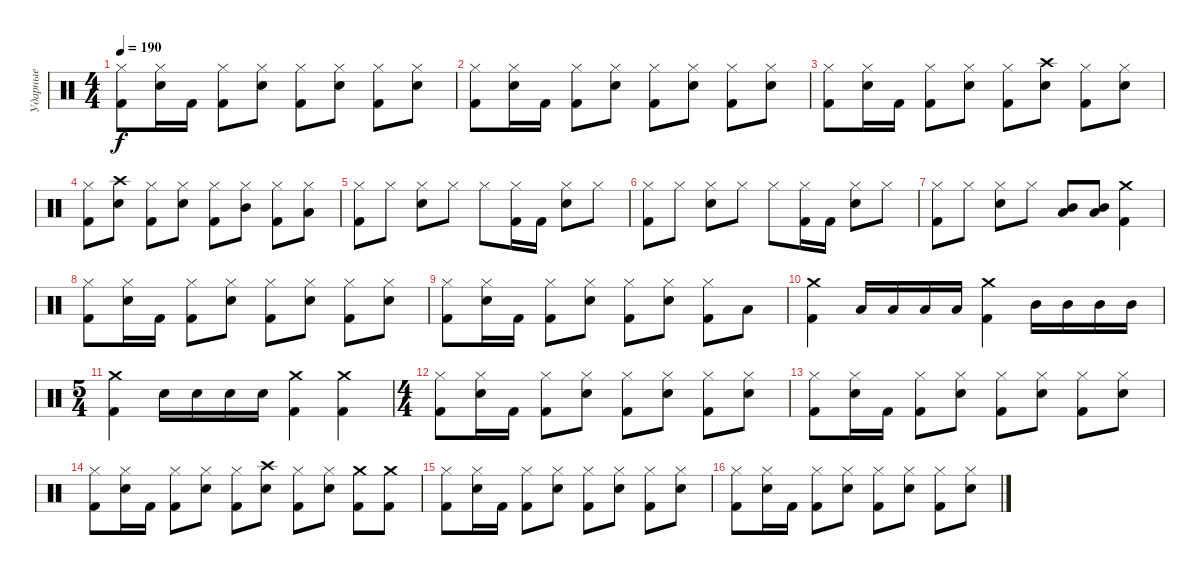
\track ("Ударные" "Ударные") {instrument percussion}
\staff {score}
\articulation defaults
\ts (4 4)
\tempo 190
\clef neutral
\ks c
("Kick (hit) 2" "Hi-Hat (closed)").8{dy f} ("Snare (hit) 2" "Hi-Hat (closed)").16 "Kick (hit) 2".16 ("Kick (hit) 2" "Hi-Hat (closed)").8 ("Snare (hit) 2" "Hi-Hat (closed)").8 ("Kick (hit) 2" "Hi-Hat (closed)").8 ("Snare (hit) 2" "Hi-Hat (closed)").8 ("Kick (hit) 2" "Hi-Hat (closed)").8 ("Snare (hit) 2" "Hi-Hat (closed)").8 |
("Kick (hit) 2" "Hi-Hat (closed)").8 ("Snare (hit) 2" "Hi-Hat (closed)").16 "Kick (hit) 2".16 ("Kick (hit) 2" "Hi-Hat (closed)").8 ("Snare (hit) 2" "Hi-Hat (closed)").8 ("Kick (hit) 2" "Hi-Hat (closed)").8 ("Snare (hit) 2" "Hi-Hat (closed)").8 ("Kick (hit) 2" "Hi-Hat (closed)").8 ("Snare (hit) 2" "Hi-Hat (closed)").8 |
("Kick (hit) 2" "Hi-Hat (closed)").8 ("Snare (hit) 2" "Hi-Hat (closed)").16 "Kick (hit) 2".16 ("Kick (hit) 2" "Hi-Hat (closed)").8 ("Snare (hit) 2" "Hi-Hat (closed)").8 ("Kick (hit) 2" "Hi-Hat (closed)").8 ("Snare (hit) 2" "Crash high (hit)").8 ("Kick (hit) 2" "Hi-Hat (closed)").8 ("Snare (hit) 2" "Hi-Hat (closed)").8 |
("Kick (hit) 2" "Hi-Hat (closed)").8 ("Snare (hit) 2" "Crash high (hit)").8 ("Kick (hit) 2" "Hi-Hat (closed)").8 ("Snare (hit) 2" "Hi-Hat (closed)").8 ("Kick (hit) 2" "Hi-Hat (closed)").8 ("Hi-Hat (closed)" "Mid Tom (hit)").8 ("Kick (hit) 2" "Hi-Hat (closed)").8 ("Hi-Hat (closed)" "Low Tom (hit)").8 |
("Kick (hit) 2" "Hi-Hat (closed)").8 "Hi-Hat (closed)".8 ("Snare (hit) 2" "Hi-Hat (closed)").8 "Hi-Hat (closed)".8 "Hi-Hat (closed)".8 ("Kick (hit) 2" "Hi-Hat (closed)").16 "Kick (hit) 2".16 ("Snare (hit) 2" "Hi-Hat (closed)").8 "Hi-Hat (closed)".8 |
("Kick (hit) 2" "Hi-Hat (closed)").8 "Hi-Hat (closed)".8 ("Snare (hit) 2" "Hi-Hat (closed)").8 "Hi-Hat (closed)".8 "Hi-Hat (closed)".8 ("Kick (hit) 2" "Hi-Hat (closed)").16 "Kick (hit) 2".16 ("Snare (hit) 2" "Hi-Hat (closed)").8 "Hi-Hat (closed)".8 |
("Kick (hit) 2" "Hi-Hat (closed)").8 "Hi-Hat (closed)".8 ("Snare (hit) 2" "Hi-Hat (closed)").8 "Hi-Hat (closed)".8 ("Mid Tom (hit)" "Low Tom (hit)").8{bd 240} ("Mid Tom (hit)" "Low Tom (hit)").8{bu 240} ("Crash medium (hit)" "Kick (hit) 2").4 |
("Kick (hit) 2" "Hi-Hat (closed)").8 ("Snare (hit) 2" "Hi-Hat (closed)").16 "Kick (hit) 2".16 ("Kick (hit) 2" "Hi-Hat (closed)").8 ("Snare (hit) 2" "Hi-Hat (closed)").8 ("Kick (hit) 2" "Hi-Hat (closed)").8 ("Snare (hit) 2" "Hi-Hat (closed)").8 ("Kick (hit) 2" "Hi-Hat (closed)").8 ("Snare (hit) 2" "Hi-Hat (closed)").8 |
("Kick (hit) 2" "Hi-Hat (closed)").8 ("Snare (hit) 2" "Hi-Hat (closed)").16 "Kick (hit) 2".16 ("Kick (hit) 2" "Hi-Hat (closed)").8 ("Snare (hit) 2" "Hi-Hat (closed)").8 ("Kick (hit) 2" "Hi-Hat (closed)").8 ("Snare (hit) 2" "Hi-Hat (closed)").8 ("Kick (hit) 2" "Hi-Hat (closed)").8 "Low Tom (hit)".8 |
("Crash medium (hit)" "Kick (hit) 2").4 "Low Tom (hit)".16 "Low Tom (hit)".16 "Low Tom (hit)".16 "Low Tom (hit)".16 ("Crash medium (hit)" "Kick (hit) 2").4 "Mid Tom (hit)".16 "Mid Tom (hit)".16 "Mid Tom (hit)".16 "Mid Tom (hit)".16 |
\ts (5 4)
("Crash medium (hit)" "Kick (hit) 2").4 "Snare (hit) 2".16 "Snare (hit) 2".16 "Snare (hit) 2".16 "Snare (hit) 2".16 ("Crash medium (hit)" "Kick (hit) 2").4 ("Crash medium (hit)" "Kick (hit) 2").4 |
\ts (4 4)
("Kick (hit) 2" "Hi-Hat (closed)").8 ("Snare (hit) 2" "Hi-Hat (closed)").16 "Kick (hit) 2".16 ("Kick (hit) 2" "Hi-Hat (closed)").8 ("Snare (hit) 2" "Hi-Hat (closed)").8 ("Kick (hit) 2" "Hi-Hat (closed)").8 ("Snare (hit) 2" "Hi-Hat (closed)").8 ("Kick (hit) 2" "Hi-Hat (closed)").8 ("Snare (hit) 2" "Hi-Hat (closed)").8 |
("Kick (hit) 2" "Hi-Hat (closed)").8 ("Snare (hit) 2" "Hi-Hat (closed)").16 "Kick (hit) 2".16 ("Kick (hit) 2" "Hi-Hat (closed)").8 ("Snare (hit) 2" "Hi-Hat (closed)").8 ("Kick (hit) 2" "Hi-Hat (closed)").8 ("Snare (hit) 2" "Hi-Hat (closed)").8 ("Kick (hit) 2" "Hi-Hat (closed)").8 ("Snare (hit) 2" "Hi-Hat (closed)").8 |
("Kick (hit) 2" "Hi-Hat (closed)").8 ("Snare (hit) 2" "Hi-Hat (closed)").16 "Kick (hit) 2".16 ("Kick (hit) 2" "Hi-Hat (closed)").8 ("Snare (hit) 2" "Hi-Hat (closed)").8 ("Kick (hit) 2" "Hi-Hat (closed)").8 ("Snare (hit) 2" "Crash high (hit)").8 ("Kick (hit) 2" "Hi-Hat (closed)").8 ("Snare (hit) 2" "Hi-Hat (closed)").8 ("Kick (hit) 2" "Crash medium (hit)").8 ("Kick (hit) 2" "Crash medium (hit)").8 |
("Kick (hit) 2" "Hi-Hat (closed)").8 ("Snare (hit) 2" "Hi-Hat (closed)").16 "Kick (hit) 2".16 ("Kick (hit) 2" "Hi-Hat (closed)").8 ("Snare (hit) 2" "Hi-Hat (closed)").8 ("Kick (hit) 2" "Hi-Hat (closed)").8 ("Snare (hit) 2" "Hi-Hat (closed)").8 ("Kick (hit) 2" "Hi-Hat (closed)").8 ("Snare (hit) 2" "Hi-Hat (closed)").8 |
("Kick (hit) 2" "Hi-Hat (closed)").8 ("Snare (hit) 2" "Hi-Hat (closed)").16 "Kick (hit) 2".16 ("Kick (hit) 2" "Hi-Hat (closed)").8 ("Snare (hit) 2" "Hi-Hat (closed)").8 ("Kick (hit) 2" "Hi-Hat (closed)").8 ("Snare (hit) 2" "Hi-Hat (closed)").8 ("Kick (hit) 2" "Hi-Hat (closed)").8 ("Snare (hit) 2" "Hi-Hat (closed)").8
